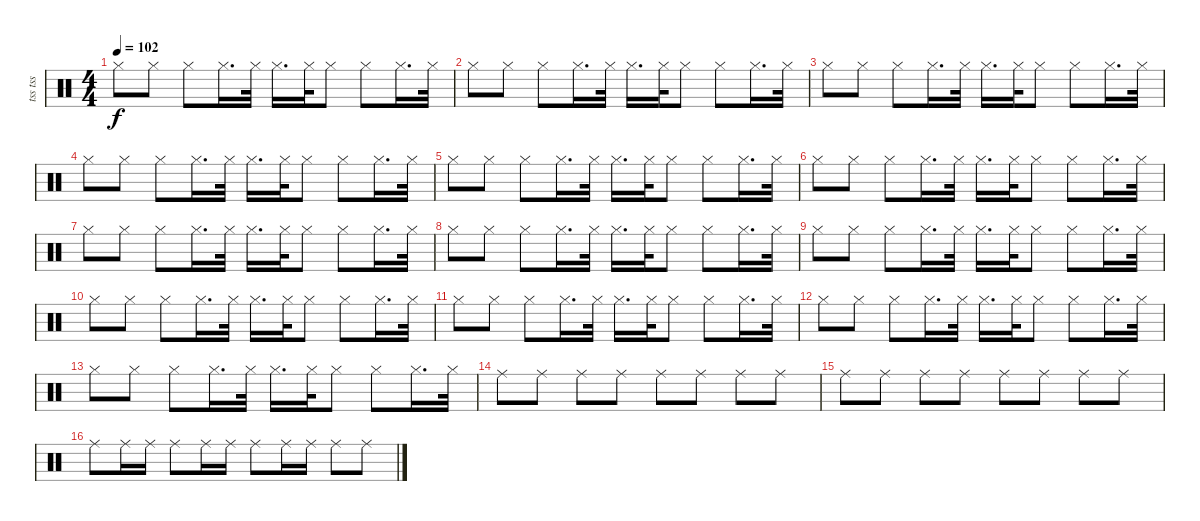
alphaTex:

\track ("tss tss" "tss tss") {instrument percussion}
\staff {score}
\articulation defaults
\ts (4 4)
\tempo 102
\clef neutral
\ks c "Hi-Hat (closed)".8{dy f} "Hi-Hat (closed)".8 "Hi-Hat (closed)".8 "Hi-Hat (closed)".16{d} "Hi-Hat (closed)".32 "Hi-Hat (closed)".16{d} "Hi-Hat (closed)".32 "Hi-Hat (closed)".8 "Hi-Hat (closed)".8 "Hi-Hat (closed)".16{d} "Hi-Hat (closed)".32
|
"Hi-Hat (closed)".8 "Hi-Hat (closed)".8 "Hi-Hat (closed)".8 "Hi-Hat (closed)".16{d} "Hi-Hat (closed)".32 "Hi-Hat (closed)".16{d} "Hi-Hat (closed)".32 "Hi-Hat (closed)".8 "Hi-Hat (closed)".8 "Hi-Hat (closed)".16{d} "Hi-Hat (closed)".32 |
"Hi-Hat (closed)".8 "Hi-Hat (closed)".8 "Hi-Hat (closed)".8 "Hi-Hat (closed)".16{d} "Hi-Hat (closed)".32 "Hi-Hat (closed)".16{d} "Hi-Hat (closed)".32 "Hi-Hat (closed)".8 "Hi-Hat (closed)".8 "Hi-Hat (closed)".16{d} "Hi-Hat (closed)".32 |
"Hi-Hat (closed)".8 "Hi-Hat (closed)".8 "Hi-Hat (closed)".8 "Hi-Hat (closed)".16{d} "Hi-Hat (closed)".32 "Hi-Hat (closed)".16{d} "Hi-Hat (closed)".32 "Hi-Hat (closed)".8 "Hi-Hat (closed)".8 "Hi-Hat (closed)".16{d} "Hi-Hat (closed)".32 |
"Hi-Hat (closed)".8 "Hi-Hat (closed)".8 "Hi-Hat (closed)".8 "Hi-Hat (closed)".16{d} "Hi-Hat (closed)".32 "Hi-Hat (closed)".16{d} "Hi-Hat (closed)".32 "Hi-Hat (closed)".8 "Hi-Hat (closed)".8 "Hi-Hat (closed)".16{d} "Hi-Hat (closed)".32 |
"Hi-Hat (closed)".8 "Hi-Hat (closed)".8 "Hi-Hat (closed)".8 "Hi-Hat (closed)".16{d} "Hi-Hat (closed)".32 "Hi-Hat (closed)".16{d} "Hi-Hat (closed)".32 "Hi-Hat (closed)".8 "Hi-Hat (closed)".8 "Hi-Hat (closed)".16{d} "Hi-Hat (closed)".32 |
"Hi-Hat (closed)".8 "Hi-Hat (closed)".8 "Hi-Hat (closed)".8 "Hi-Hat (closed)".16{d} "Hi-Hat (closed)".32 "Hi-Hat (closed)".16{d} "Hi-Hat (closed)".32 "Hi-Hat (closed)".8 "Hi-Hat (closed)".8 "Hi-Hat (closed)".16{d} "Hi-Hat (closed)".32 |
"Hi-Hat (closed)".8 "Hi-Hat (closed)".8 "Hi-Hat (closed)".8 "Hi-Hat (closed)".16{d} "Hi-Hat (closed)".32 "Hi-Hat (closed)".16{d} "Hi-Hat (closed)".32 "Hi-Hat (closed)".8 "Hi-Hat (closed)".8 "Hi-Hat (closed)".16{d} "Hi-Hat (closed)".32 |
"Hi-Hat (closed)".8 "Hi-Hat (closed)".8 "Hi-Hat (closed)".8 "Hi-Hat (closed)".16{d} "Hi-Hat (closed)".32 "Hi-Hat (closed)".16{d} "Hi-Hat (closed)".32 "Hi-Hat (closed)".8 "Hi-Hat (closed)".8 "Hi-Hat (closed)".16{d} "Hi-Hat (closed)".32 |
"Hi-Hat (closed)".8 "Hi-Hat (closed)".8 "Hi-Hat (closed)".8 "Hi-Hat (closed)".16{d} "Hi-Hat (closed)".32 "Hi-Hat (closed)".16{d} "Hi-Hat (closed)".32 "Hi-Hat (closed)".8 "Hi-Hat (closed)".8 "Hi-Hat (closed)".16{d} "Hi-Hat (closed)".32 |
"Hi-Hat (closed)".8 "Hi-Hat (closed)".8 "Hi-Hat (closed)".8 "Hi-Hat (closed)".16{d} "Hi-Hat (closed)".32 "Hi-Hat (closed)".16{d} "Hi-Hat (closed)".32 "Hi-Hat (closed)".8 "Hi-Hat (closed)".8 "Hi-Hat (closed)".16{d} "Hi-Hat (closed)".32 |
"Hi-Hat (closed)".8 "Hi-Hat (closed)".8 "Hi-Hat (closed)".8 "Hi-Hat (closed)".16{d} "Hi-Hat (closed)".32 "Hi-Hat (closed)".16{d} "Hi-Hat (closed)".32 "Hi-Hat (closed)".8 "Hi-Hat (closed)".8 "Hi-Hat (closed)".16{d} "Hi-Hat (closed)".32 |
"Hi-Hat (closed)".8 "Hi-Hat (closed)".8 "Hi-Hat (closed)".8 "Hi-Hat (closed)".16{d} "Hi-Hat (closed)".32 "Hi-Hat (closed)".16{d} "Hi-Hat (closed)".32 "Hi-Hat (closed)".8 "Hi-Hat (closed)".8 "Hi-Hat (closed)".16{d} "Hi-Hat (closed)".32 |
"Ride (middle)".8 "Ride (middle)".8 "Ride (middle)".8 "Ride (middle)".8 "Ride (middle)".8 "Ride (middle)".8 "Ride (middle)".8 "Ride (middle)".8 |
"Ride (middle)".8 "Ride (middle)".8 "Ride (middle)".8 "Ride (middle)".8 "Ride (middle)".8 "Ride (middle)".8 "Ride (middle)".8 "Ride (middle)".8 |
"Ride (middle)".8 "Ride (middle)".16 "Ride (middle)".16 "Ride (middle)".8 "Ride (middle)".16 "Ride (middle)".16 "Ride (middle)".8 "Ride (middle)".16 "Ride (middle)".16 "Ride (middle)".8 "Ride (middle)".8
